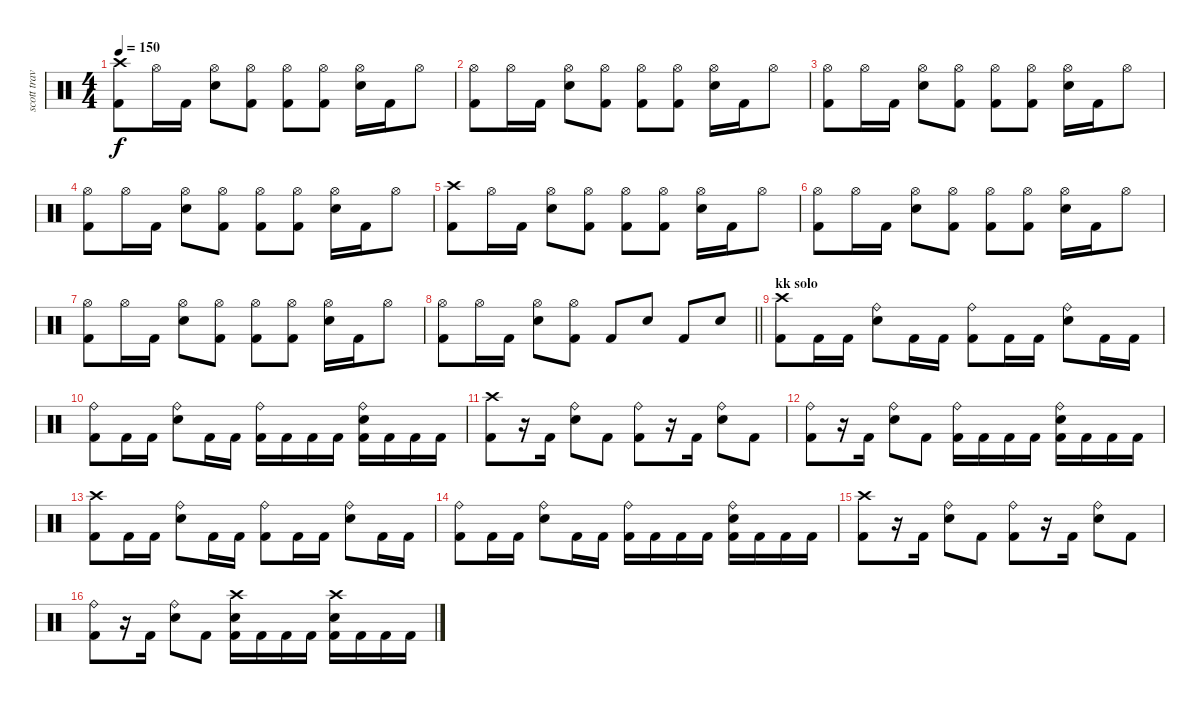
\track ("scott travis" "scott trav") {instrument percussion}
\staff {score}
\articulation defaults
\ts (4 4)
\tempo 150
\clef neutral
\ks c
("Crash high (hit)" "Kick (hit) 2").8{dy f} "Hi-Hat (open)".16 "Kick (hit) 2".16 ("Hi-Hat (open)" "Snare (hit) 2").8 ("Hi-Hat (open)" "Kick (hit) 2").8 ("Hi-Hat (open)" "Kick (hit) 2").8 ("Hi-Hat (open)" "Kick (hit) 2").8 ("Hi-Hat (open)" "Snare (hit) 2").16 "Kick (hit) 2".16 "Hi-Hat (open)".8 |
("Hi-Hat (open)" "Kick (hit) 2").8 "Hi-Hat (open)".16 "Kick (hit) 2".16 ("Hi-Hat (open)" "Snare (hit) 2").8 ("Hi-Hat (open)" "Kick (hit) 2").8 ("Hi-Hat (open)" "Kick (hit) 2").8 ("Hi-Hat (open)" "Kick (hit) 2").8 ("Hi-Hat (open)" "Snare (hit) 2").16 "Kick (hit) 2".16 "Hi-Hat (open)".8 |
("Hi-Hat (open)" "Kick (hit) 2").8 "Hi-Hat (open)".16 "Kick (hit) 2".16 ("Hi-Hat (open)" "Snare (hit) 2").8 ("Hi-Hat (open)" "Kick (hit) 2").8 ("Hi-Hat (open)" "Kick (hit) 2").8 ("Hi-Hat (open)" "Kick (hit) 2").8 ("Hi-Hat (open)" "Snare (hit) 2").16 "Kick (hit) 2".16 "Hi-Hat (open)".8 |
("Hi-Hat (open)" "Kick (hit) 2").8 "Hi-Hat (open)".16 "Kick (hit) 2".16 ("Hi-Hat (open)" "Snare (hit) 2").8 ("Hi-Hat (open)" "Kick (hit) 2").8 ("Hi-Hat (open)" "Kick (hit) 2").8 ("Hi-Hat (open)" "Kick (hit) 2").8 ("Hi-Hat (open)" "Snare (hit) 2").16 "Kick (hit) 2".16 "Hi-Hat (open)".8 |
("Crash high (hit)" "Kick (hit) 2").8 "Hi-Hat (open)".16 "Kick (hit) 2".16 ("Hi-Hat (open)" "Snare (hit) 2").8 ("Hi-Hat (open)" "Kick (hit) 2").8 ("Hi-Hat (open)" "Kick (hit) 2").8 ("Hi-Hat (open)" "Kick (hit) 2").8 ("Hi-Hat (open)" "Snare (hit) 2").16 "Kick (hit) 2".16 "Hi-Hat (open)".8 |
("Hi-Hat (open)" "Kick (hit) 2").8 "Hi-Hat (open)".16 "Kick (hit) 2".16 ("Hi-Hat (open)" "Snare (hit) 2").8 ("Hi-Hat (open)" "Kick (hit) 2").8 ("Hi-Hat (open)" "Kick (hit) 2").8 ("Hi-Hat (open)" "Kick (hit) 2").8 ("Hi-Hat (open)" "Snare (hit) 2").16 "Kick (hit) 2".16 "Hi-Hat (open)".8 |
("Hi-Hat (open)" "Kick (hit) 2").8 "Hi-Hat (open)".16 "Kick (hit) 2".16 ("Hi-Hat (open)" "Snare (hit) 2").8 ("Hi-Hat (open)" "Kick (hit) 2").8 ("Hi-Hat (open)" "Kick (hit) 2").8 ("Hi-Hat (open)" "Kick (hit) 2").8 ("Hi-Hat (open)" "Snare (hit) 2").16 "Kick (hit) 2".16 "Hi-Hat (open)".8 |
\barLineRight lightlight
("Hi-Hat (open)" "Kick (hit) 2").8 "Hi-Hat (open)".16 "Kick (hit) 2".16 ("Hi-Hat (open)" "Snare (hit) 2").8 ("Hi-Hat (open)" "Kick (hit) 2").8 "Kick (hit) 2".8 "Snare (hit) 2".8 "Kick (hit) 2".8 "Snare (hit) 2".8 |
\section ("" "kk solo")
("Crash high (hit)" "Kick (hit) 2").8 "Kick (hit) 2".16 "Kick (hit) 2".16 ("Ride (bell)" "Snare (hit) 2").8 "Kick (hit) 2".16 "Kick (hit) 2".16 ("Ride (bell)" "Kick (hit) 2").8 "Kick (hit) 2".16 "Kick (hit) 2".16 ("Ride (bell)" "Snare (hit) 2").8 "Kick (hit) 2".16 "Kick (hit) 2".16 |
("Ride (bell)" "Kick (hit) 2").8 "Kick (hit) 2".16 "Kick (hit) 2".16 ("Ride (bell)" "Snare (hit) 2").8 "Kick (hit) 2".16 "Kick (hit) 2".16 ("Ride (bell)" "Kick (hit) 2").16 "Kick (hit) 2".16 "Kick (hit) 2".16 "Kick (hit) 2".16 ("Ride (bell)" "Snare (hit) 2" "Kick (hit) 2").16 "Kick (hit) 2".16 "Kick (hit) 2".16 "Kick (hit) 2".16 |
("Crash high (hit)" "Kick (hit) 2").8 r.16 "Kick (hit) 2".16 ("Ride (bell)" "Snare (hit) 2").8 "Kick (hit) 2".8 ("Ride (bell)" "Kick (hit) 2").8 r.16 "Kick (hit) 2".16 ("Ride (bell)" "Snare (hit) 2").8 "Kick (hit) 2".8 |
("Ride (bell)" "Kick (hit) 2").8 r.16 "Kick (hit) 2".16 ("Ride (bell)" "Snare (hit) 2").8 "Kick (hit) 2".8 ("Ride (bell)" "Kick (hit) 2").16 "Kick (hit) 2".16 "Kick (hit) 2".16 "Kick (hit) 2".16 ("Ride (bell)" "Snare (hit) 2" "Kick (hit) 2").16 "Kick (hit) 2".16 "Kick (hit) 2".16 "Kick (hit) 2".16 |
("Crash high (hit)" "Kick (hit) 2").8 "Kick (hit) 2".16 "Kick (hit) 2".16 ("Ride (bell)" "Snare (hit) 2").8 "Kick (hit) 2".16 "Kick (hit) 2".16 ("Ride (bell)" "Kick (hit) 2").8 "Kick (hit) 2".16 "Kick (hit) 2".16 ("Ride (bell)" "Snare (hit) 2").8 "Kick (hit) 2".16 "Kick (hit) 2".16 |
("Ride (bell)" "Kick (hit) 2").8 "Kick (hit) 2".16 "Kick (hit) 2".16 ("Ride (bell)" "Snare (hit) 2").8 "Kick (hit) 2".16 "Kick (hit) 2".16 ("Ride (bell)" "Kick (hit) 2").16 "Kick (hit) 2".16 "Kick (hit) 2".16 "Kick (hit) 2".16 ("Ride (bell)" "Snare (hit) 2" "Kick (hit) 2").16 "Kick (hit) 2".16 "Kick (hit) 2".16 "Kick (hit) 2".16 |
("Crash high (hit)" "Kick (hit) 2").8 r.16 "Kick (hit) 2".16 ("Ride (bell)" "Snare (hit) 2").8 "Kick (hit) 2".8 ("Ride (bell)" "Kick (hit) 2").8 r.16 "Kick (hit) 2".16 ("Ride (bell)" "Snare (hit) 2").8 "Kick (hit) 2".8 |
("Ride (bell)" "Kick (hit) 2").8 r.16 "Kick (hit) 2".16 ("Ride (bell)" "Snare (hit) 2").8 "Kick (hit) 2".8 ("Crash high (hit)" "Snare (hit) 2" "Kick (hit) 2").16 "Kick (hit) 2".16 "Kick (hit) 2".16 "Kick (hit) 2".16 ("Crash high (hit)" "Snare (hit) 2" "Kick (hit) 2").16 "Kick (hit) 2".16 "Kick (hit) 2".16 "Kick (hit) 2".16
